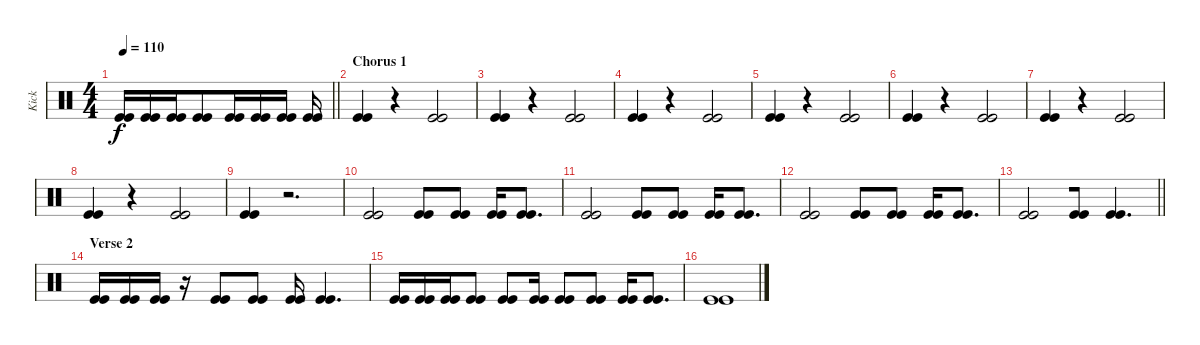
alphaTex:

\track ("Kick" "Kick") {instrument percussion}
\staff {score}
\articulation defaults
\ts (4 4)
\tempo 110
\clef neutral
\barLineRight lightlight
\ks c
("Kick (hit)" "Kick (hit)").16{dy f} ("Kick (hit)" "Kick (hit)").16 ("Kick (hit)" "Kick (hit)").16 ("Kick (hit)" "Kick (hit)").8{beam merge} ("Kick (hit)" "Kick (hit)").16{beam merge} ("Kick (hit)" "Kick (hit)").16 ("Kick (hit)" "Kick (hit)").16 ("Kick (hit)" "Kick (hit)").16 |
\section ("" "Chorus 1")
("Kick (hit)" "Kick (hit)").4 r.4 ("Kick (hit)" "Kick (hit)").2 |
("Kick (hit)" "Kick (hit)").4 r.4 ("Kick (hit)" "Kick (hit)").2 |
("Kick (hit)" "Kick (hit)").4 r.4 ("Kick (hit)" "Kick (hit)").2 |
("Kick (hit)" "Kick (hit)").4 r.4 ("Kick (hit)" "Kick (hit)").2 |
("Kick (hit)" "Kick (hit)").4 r.4 ("Kick (hit)" "Kick (hit)").2 |
("Kick (hit)" "Kick (hit)").4 r.4 ("Kick (hit)" "Kick (hit)").2 |
("Kick (hit)" "Kick (hit)").4 r.4 ("Kick (hit)" "Kick (hit)").2 |
("Kick (hit)" "Kick (hit)").4 r.2{d} |
("Kick (hit)" "Kick (hit)").2{beam merge} ("Kick (hit)" "Kick (hit)").8 ("Kick (hit)" "Kick (hit)").8 ("Kick (hit)" "Kick (hit)").16 ("Kick (hit)" "Kick (hit)").8{d} |
("Kick (hit)" "Kick (hit)").2{beam merge} ("Kick (hit)" "Kick (hit)").8 ("Kick (hit)" "Kick (hit)").8 ("Kick (hit)" "Kick (hit)").16 ("Kick (hit)" "Kick (hit)").8{d} |
("Kick (hit)" "Kick (hit)").2{beam merge} ("Kick (hit)" "Kick (hit)").8 ("Kick (hit)" "Kick (hit)").8 ("Kick (hit)" "Kick (hit)").16 ("Kick (hit)" "Kick (hit)").8{d} |
\barLineRight lightlight
("Kick (hit)" "Kick (hit)").2{beam merge} ("Kick (hit)" "Kick (hit)").8 ("Kick (hit)" "Kick (hit)").4{d} |
\section ("" "Verse 2")
("Kick (hit)" "Kick (hit)").16{beam merge} ("Kick (hit)" "Kick (hit)").16 ("Kick (hit)" "Kick (hit)").16 r.16 ("Kick (hit)" "Kick (hit)").8 ("Kick (hit)" "Kick (hit)").8 ("Kick (hit)" "Kick (hit)").16 ("Kick (hit)" "Kick (hit)").4{d} |
("Kick (hit)" "Kick (hit)").16{beam merge} ("Kick (hit)" "Kick (hit)").16{beam merge} ("Kick (hit)" "Kick (hit)").16 ("Kick (hit)" "Kick (hit)").8 ("Kick (hit)" "Kick (hit)").8 ("Kick (hit)" "Kick (hit)").16 ("Kick (hit)" "Kick (hit)").8 ("Kick (hit)" "Kick (hit)").8 ("Kick (hit)" "Kick (hit)").16 ("Kick (hit)" "Kick (hit)").8{d} |
("Kick (hit)" "Kick (hit)").1
